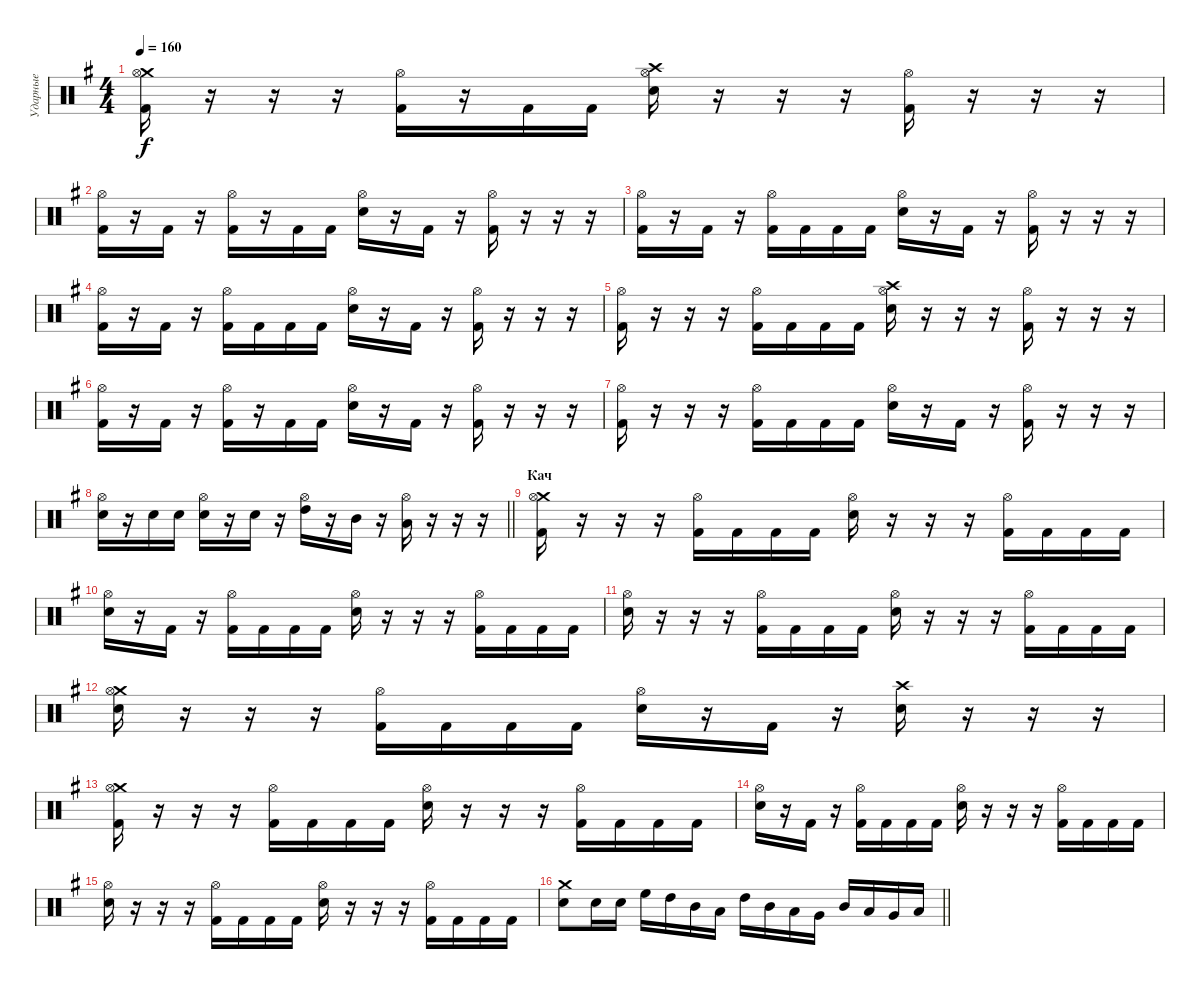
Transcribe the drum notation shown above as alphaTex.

\track ("Ударные" "Ударные") {instrument percussion}
\staff {score}
\articulation defaults
\ts (4 4)
\section ("" "")
\tempo 160
\clef neutral
\ks eminor
("Crash medium (hit)" "Kick (hit) 2" "Hi-Hat (open)").16{dy f} r.16 r.16 r.16 ("Kick (hit) 2" "Hi-Hat (open)").16 r.16 "Kick (hit) 2".16 "Kick (hit) 2".16 ("Crash high (hit)" "Electric Snare (hit)" "Hi-Hat (open)").16 r.16 r.16 r.16 ("Kick (hit) 2" "Hi-Hat (open)").16 r.16 r.16 r.16 |
("Kick (hit) 2" "Hi-Hat (open)").16 r.16 "Kick (hit) 2".16 r.16 ("Kick (hit) 2" "Hi-Hat (open)").16 r.16 "Kick (hit) 2".16 "Kick (hit) 2".16 ("Electric Snare (hit)" "Hi-Hat (open)").16 r.16 "Kick (hit) 2".16 r.16 ("Kick (hit) 2" "Hi-Hat (open)").16 r.16 r.16 r.16 |
("Kick (hit) 2" "Hi-Hat (open)").16 r.16 "Kick (hit) 2".16 r.16 ("Kick (hit) 2" "Hi-Hat (open)").16 "Kick (hit) 2".16 "Kick (hit) 2".16 "Kick (hit) 2".16 ("Electric Snare (hit)" "Hi-Hat (open)").16 r.16 "Kick (hit) 2".16 r.16 ("Kick (hit) 2" "Hi-Hat (open)").16 r.16 r.16 r.16 |
("Kick (hit) 2" "Hi-Hat (open)").16 r.16 "Kick (hit) 2".16 r.16 ("Kick (hit) 2" "Hi-Hat (open)").16 "Kick (hit) 2".16 "Kick (hit) 2".16 "Kick (hit) 2".16 ("Electric Snare (hit)" "Hi-Hat (open)").16 r.16 "Kick (hit) 2".16 r.16 ("Kick (hit) 2" "Hi-Hat (open)").16 r.16 r.16 r.16 |
("Kick (hit) 2" "Hi-Hat (open)").16 r.16 r.16 r.16 ("Kick (hit) 2" "Hi-Hat (open)").16 "Kick (hit) 2".16 "Kick (hit) 2".16 "Kick (hit) 2".16 ("Crash high (hit)" "Electric Snare (hit)" "Hi-Hat (open)").16 r.16 r.16 r.16 ("Kick (hit) 2" "Hi-Hat (open)").16 r.16 r.16 r.16 |
("Kick (hit) 2" "Hi-Hat (open)").16 r.16 "Kick (hit) 2".16 r.16 ("Kick (hit) 2" "Hi-Hat (open)").16 r.16 "Kick (hit) 2".16 "Kick (hit) 2".16 ("Electric Snare (hit)" "Hi-Hat (open)").16 r.16 "Kick (hit) 2".16 r.16 ("Kick (hit) 2" "Hi-Hat (open)").16 r.16 r.16 r.16 |
("Kick (hit) 2" "Hi-Hat (open)").16 r.16 r.16 r.16 ("Kick (hit) 2" "Hi-Hat (open)").16 "Kick (hit) 2".16 "Kick (hit) 2".16 "Kick (hit) 2".16 ("Electric Snare (hit)" "Hi-Hat (open)").16 r.16 "Kick (hit) 2".16 r.16 ("Kick (hit) 2" "Hi-Hat (open)").16 r.16 r.16 r.16 |
\barLineRight lightlight
("Electric Snare (hit)" "Hi-Hat (open)").16 r.16 "Electric Snare (hit)".16 "Electric Snare (hit)".16 ("Electric Snare (hit)" "Hi-Hat (open)").16 r.16 "Electric Snare (hit)".16 r.16 ("High Tom (hit)" "Hi-Hat (open)").16 r.16 "Mid Tom (hit)".16 r.16 ("Low Tom (hit)" "Hi-Hat (open)").16 r.16 r.16 r.16 |
\section ("" "Кач")
("Crash medium (hit)" "Kick (hit) 2" "Hi-Hat (open)").16 r.16 r.16 r.16 ("Kick (hit) 2" "Hi-Hat (open)").16 "Kick (hit) 2".16 "Kick (hit) 2".16 "Kick (hit) 2".16 ("Electric Snare (hit)" "Hi-Hat (open)").16 r.16 r.16 r.16 ("Kick (hit) 2" "Hi-Hat (open)").16 "Kick (hit) 2".16 "Kick (hit) 2".16 "Kick (hit) 2".16 |
("Electric Snare (hit)" "Hi-Hat (open)").16 r.16 "Kick (hit) 2".16 r.16 ("Kick (hit) 2" "Hi-Hat (open)").16 "Kick (hit) 2".16 "Kick (hit) 2".16 "Kick (hit) 2".16 ("Electric Snare (hit)" "Hi-Hat (open)").16 r.16 r.16 r.16 ("Kick (hit) 2" "Hi-Hat (open)").16 "Kick (hit) 2".16 "Kick (hit) 2".16 "Kick (hit) 2".16 |
("Electric Snare (hit)" "Hi-Hat (open)").16 r.16 r.16 r.16 ("Kick (hit) 2" "Hi-Hat (open)").16 "Kick (hit) 2".16 "Kick (hit) 2".16 "Kick (hit) 2".16 ("Electric Snare (hit)" "Hi-Hat (open)").16 r.16 r.16 r.16 ("Kick (hit) 2" "Hi-Hat (open)").16 "Kick (hit) 2".16 "Kick (hit) 2".16 "Kick (hit) 2".16 |
("Crash medium (hit)" "Electric Snare (hit)" "Hi-Hat (open)").16 r.16 r.16 r.16 ("Kick (hit) 2" "Hi-Hat (open)").16 "Kick (hit) 2".16 "Kick (hit) 2".16 "Kick (hit) 2".16 ("Electric Snare (hit)" "Hi-Hat (open)").16 r.16 "Kick (hit) 2".16 r.16 ("Crash high (hit)" "Electric Snare (hit)").16 r.16 r.16 r.16 |
("Crash medium (hit)" "Kick (hit) 2" "Hi-Hat (open)").16 r.16 r.16 r.16 ("Kick (hit) 2" "Hi-Hat (open)").16 "Kick (hit) 2".16 "Kick (hit) 2".16 "Kick (hit) 2".16 ("Electric Snare (hit)" "Hi-Hat (open)").16 r.16 r.16 r.16 ("Kick (hit) 2" "Hi-Hat (open)").16 "Kick (hit) 2".16 "Kick (hit) 2".16 "Kick (hit) 2".16 |
("Electric Snare (hit)" "Hi-Hat (open)").16 r.16 "Kick (hit) 2".16 r.16 ("Kick (hit) 2" "Hi-Hat (open)").16 "Kick (hit) 2".16 "Kick (hit) 2".16 "Kick (hit) 2".16 ("Electric Snare (hit)" "Hi-Hat (open)").16 r.16 r.16 r.16 ("Kick (hit) 2" "Hi-Hat (open)").16 "Kick (hit) 2".16 "Kick (hit) 2".16 "Kick (hit) 2".16 |
("Electric Snare (hit)" "Hi-Hat (open)").16 r.16 r.16 r.16 ("Kick (hit) 2" "Hi-Hat (open)").16 "Kick (hit) 2".16 "Kick (hit) 2".16 "Kick (hit) 2".16 ("Electric Snare (hit)" "Hi-Hat (open)").16 r.16 r.16 r.16 ("Kick (hit) 2" "Hi-Hat (open)").16 "Kick (hit) 2".16 "Kick (hit) 2".16 "Kick (hit) 2".16 |
\barLineRight lightlight
("Crash medium (hit)" "Electric Snare (hit)").8 "Electric Snare (hit)".16 "Electric Snare (hit)".16 "High Floor Tom (hit)".16 "High Tom (hit)".16 "Mid Tom (hit)".16 "Low Tom (hit)".16 "High Tom (hit)".16 "Mid Tom (hit)".16 "Low Tom (hit)".16 "Very Low Tom (hit)".16 "Mid Tom (hit)".16 "Low Tom (hit)".16 "Very Low Tom (hit)".16 "Low Floor Tom (hit)".16
